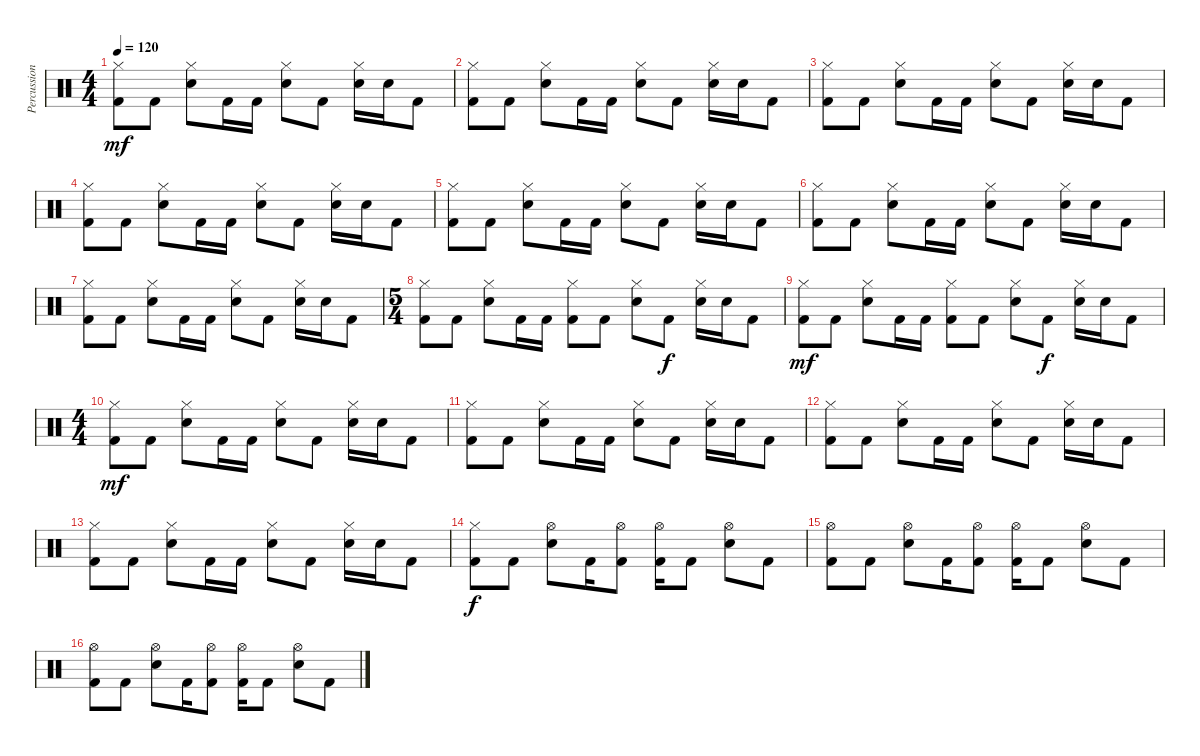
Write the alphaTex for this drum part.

\track ("Percussion" "Percussion") {instrument percussion}
\staff {score}
\articulation defaults
\ts (4 4)
\tempo 120
\clef neutral
\ks c
("Hi-Hat (closed)" "Kick (hit) 2").8{dy mf} "Kick (hit) 2".8 ("Hi-Hat (closed)" "Snare (hit) 2").8 "Kick (hit) 2".16 "Kick (hit) 2".16 ("Hi-Hat (closed)" "Snare (hit) 2").8 "Kick (hit) 2".8 ("Hi-Hat (closed)" "Snare (hit) 2").16 "Snare (hit) 2".16 "Kick (hit) 2".8 |
("Hi-Hat (closed)" "Kick (hit) 2").8 "Kick (hit) 2".8 ("Hi-Hat (closed)" "Snare (hit) 2").8 "Kick (hit) 2".16 "Kick (hit) 2".16 ("Hi-Hat (closed)" "Snare (hit) 2").8 "Kick (hit) 2".8 ("Hi-Hat (closed)" "Snare (hit) 2").16 "Snare (hit) 2".16 "Kick (hit) 2".8 |
("Hi-Hat (closed)" "Kick (hit) 2").8 "Kick (hit) 2".8 ("Hi-Hat (closed)" "Snare (hit) 2").8 "Kick (hit) 2".16 "Kick (hit) 2".16 ("Hi-Hat (closed)" "Snare (hit) 2").8 "Kick (hit) 2".8 ("Hi-Hat (closed)" "Snare (hit) 2").16 "Snare (hit) 2".16 "Kick (hit) 2".8 |
("Hi-Hat (closed)" "Kick (hit) 2").8 "Kick (hit) 2".8 ("Hi-Hat (closed)" "Snare (hit) 2").8 "Kick (hit) 2".16 "Kick (hit) 2".16 ("Hi-Hat (closed)" "Snare (hit) 2").8 "Kick (hit) 2".8 ("Hi-Hat (closed)" "Snare (hit) 2").16 "Snare (hit) 2".16 "Kick (hit) 2".8 |
("Hi-Hat (closed)" "Kick (hit) 2").8 "Kick (hit) 2".8 ("Hi-Hat (closed)" "Snare (hit) 2").8 "Kick (hit) 2".16 "Kick (hit) 2".16 ("Hi-Hat (closed)" "Snare (hit) 2").8 "Kick (hit) 2".8 ("Hi-Hat (closed)" "Snare (hit) 2").16 "Snare (hit) 2".16 "Kick (hit) 2".8 |
("Hi-Hat (closed)" "Kick (hit) 2").8 "Kick (hit) 2".8 ("Hi-Hat (closed)" "Snare (hit) 2").8 "Kick (hit) 2".16 "Kick (hit) 2".16 ("Hi-Hat (closed)" "Snare (hit) 2").8 "Kick (hit) 2".8 ("Hi-Hat (closed)" "Snare (hit) 2").16 "Snare (hit) 2".16 "Kick (hit) 2".8 |
("Hi-Hat (closed)" "Kick (hit) 2").8 "Kick (hit) 2".8 ("Hi-Hat (closed)" "Snare (hit) 2").8 "Kick (hit) 2".16 "Kick (hit) 2".16 ("Hi-Hat (closed)" "Snare (hit) 2").8 "Kick (hit) 2".8 ("Hi-Hat (closed)" "Snare (hit) 2").16 "Snare (hit) 2".16 "Kick (hit) 2".8 |
\ts (5 4)
("Hi-Hat (closed)" "Kick (hit) 2").8 "Kick (hit) 2".8 ("Hi-Hat (closed)" "Snare (hit) 2").8 "Kick (hit) 2".16 "Kick (hit) 2".16 ("Hi-Hat (closed)" "Kick (hit) 2").8 "Kick (hit) 2".8 ("Hi-Hat (closed)" "Snare (hit) 2").8 "Kick (hit) 2".8{dy f} ("Hi-Hat (closed)" "Snare (hit) 2").16 "Snare (hit) 2".16 "Kick (hit) 2".8 |
("Hi-Hat (closed)" "Kick (hit) 2").8{dy mf} "Kick (hit) 2".8 ("Hi-Hat (closed)" "Snare (hit) 2").8 "Kick (hit) 2".16 "Kick (hit) 2".16 ("Hi-Hat (closed)" "Kick (hit) 2").8 "Kick (hit) 2".8 ("Hi-Hat (closed)" "Snare (hit) 2").8 "Kick (hit) 2".8{dy f} ("Hi-Hat (closed)" "Snare (hit) 2").16 "Snare (hit) 2".16 "Kick (hit) 2".8 |
\ts (4 4)
("Hi-Hat (closed)" "Kick (hit) 2").8{dy mf} "Kick (hit) 2".8 ("Hi-Hat (closed)" "Snare (hit) 2").8 "Kick (hit) 2".16 "Kick (hit) 2".16 ("Hi-Hat (closed)" "Snare (hit) 2").8 "Kick (hit) 2".8 ("Hi-Hat (closed)" "Snare (hit) 2").16 "Snare (hit) 2".16 "Kick (hit) 2".8 |
("Hi-Hat (closed)" "Kick (hit) 2").8 "Kick (hit) 2".8 ("Hi-Hat (closed)" "Snare (hit) 2").8 "Kick (hit) 2".16 "Kick (hit) 2".16 ("Hi-Hat (closed)" "Snare (hit) 2").8 "Kick (hit) 2".8 ("Hi-Hat (closed)" "Snare (hit) 2").16 "Snare (hit) 2".16 "Kick (hit) 2".8 |
("Hi-Hat (closed)" "Kick (hit) 2").8 "Kick (hit) 2".8 ("Hi-Hat (closed)" "Snare (hit) 2").8 "Kick (hit) 2".16 "Kick (hit) 2".16 ("Hi-Hat (closed)" "Snare (hit) 2").8 "Kick (hit) 2".8 ("Hi-Hat (closed)" "Snare (hit) 2").16 "Snare (hit) 2".16 "Kick (hit) 2".8 |
("Hi-Hat (closed)" "Kick (hit) 2").8 "Kick (hit) 2".8 ("Hi-Hat (closed)" "Snare (hit) 2").8 "Kick (hit) 2".16 "Kick (hit) 2".16 ("Hi-Hat (closed)" "Snare (hit) 2").8 "Kick (hit) 2".8 ("Hi-Hat (closed)" "Snare (hit) 2").16 "Snare (hit) 2".16 "Kick (hit) 2".8 |
("Hi-Hat (closed)" "Kick (hit) 2").8{dy f} "Kick (hit) 2".8 ("Hi-Hat (open)" "Snare (hit) 2").8 "Kick (hit) 2".16 ("Hi-Hat (open)" "Kick (hit) 2").8 ("Hi-Hat (open)" "Kick (hit) 2").16 "Kick (hit) 2".8 ("Hi-Hat (open)" "Snare (hit) 2").8 "Kick (hit) 2".8 |
("Hi-Hat (open)" "Kick (hit) 2").8 "Kick (hit) 2".8 ("Hi-Hat (open)" "Snare (hit) 2").8 "Kick (hit) 2".16 ("Hi-Hat (open)" "Kick (hit) 2").8 ("Hi-Hat (open)" "Kick (hit) 2").16 "Kick (hit) 2".8 ("Hi-Hat (open)" "Snare (hit) 2").8 "Kick (hit) 2".8 |
("Hi-Hat (open)" "Kick (hit) 2").8 "Kick (hit) 2".8 ("Hi-Hat (open)" "Snare (hit) 2").8 "Kick (hit) 2".16 ("Hi-Hat (open)" "Kick (hit) 2").8 ("Hi-Hat (open)" "Kick (hit) 2").16 "Kick (hit) 2".8 ("Hi-Hat (open)" "Snare (hit) 2").8 "Kick (hit) 2".8
